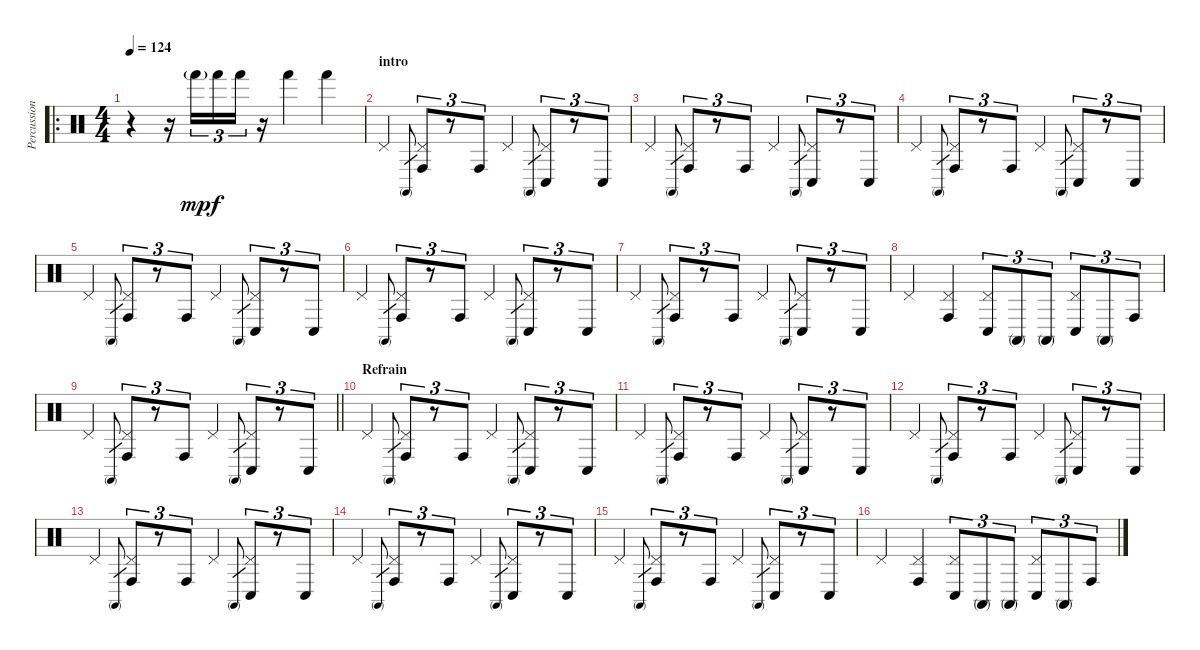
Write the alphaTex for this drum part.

\track ("Percussions" "Percussion") {instrument percussion}
\staff {score}
\articulation defaults
\ro
\ts (4 4)
\tempo 124
\clef neutral
\ks c
r.4{dy mp} r.16 "Hand (hit)"{g}.16{tu (3 2)} "Hand (hit)".16{tu (3 2) dy f} "Hand (hit)".16{tu (3 2)} r.16 "Hand (hit)".4 "Hand (hit)".4 |
\section ("" "intro")
"Pedal Hi-Hat (hit)".4 "Conga high (mute)".8{gr} ("Pedal Hi-Hat (hit)" "Conga high (hit)").8{tu (3 2)} r.8{tu (3 2)} "Conga high (hit)".8{tu (3 2)} "Pedal Hi-Hat (hit)".4 "Conga high (mute)".8{gr} ("Pedal Hi-Hat (hit)" "Conga low (hit)").8{tu (3 2)} r.8{tu (3 2)} "Conga low (hit)".8{tu (3 2)} |
"Pedal Hi-Hat (hit)".4 "Conga high (mute)".8{gr} ("Pedal Hi-Hat (hit)" "Conga high (hit)").8{tu (3 2)} r.8{tu (3 2)} "Conga high (hit)".8{tu (3 2)} "Pedal Hi-Hat (hit)".4 "Conga high (mute)".8{gr} ("Pedal Hi-Hat (hit)" "Conga low (hit)").8{tu (3 2)} r.8{tu (3 2)} "Conga low (hit)".8{tu (3 2)} |
"Pedal Hi-Hat (hit)".4 "Conga high (mute)".8{gr} ("Pedal Hi-Hat (hit)" "Conga high (hit)").8{tu (3 2)} r.8{tu (3 2)} "Conga high (hit)".8{tu (3 2)} "Pedal Hi-Hat (hit)".4 "Conga high (mute)".8{gr} ("Pedal Hi-Hat (hit)" "Conga low (hit)").8{tu (3 2)} r.8{tu (3 2)} "Conga low (hit)".8{tu (3 2)} |
"Pedal Hi-Hat (hit)".4 "Conga high (mute)".8{gr} ("Pedal Hi-Hat (hit)" "Conga high (hit)").8{tu (3 2)} r.8{tu (3 2)} "Conga high (hit)".8{tu (3 2)} "Pedal Hi-Hat (hit)".4 "Conga high (mute)".8{gr} ("Pedal Hi-Hat (hit)" "Conga low (hit)").8{tu (3 2)} r.8{tu (3 2)} "Conga low (hit)".8{tu (3 2)} |
"Pedal Hi-Hat (hit)".4 "Conga high (mute)".8{gr} ("Pedal Hi-Hat (hit)" "Conga high (hit)").8{tu (3 2)} r.8{tu (3 2)} "Conga high (hit)".8{tu (3 2)} "Pedal Hi-Hat (hit)".4 "Conga high (mute)".8{gr} ("Pedal Hi-Hat (hit)" "Conga low (hit)").8{tu (3 2)} r.8{tu (3 2)} "Conga low (hit)".8{tu (3 2)} |
"Pedal Hi-Hat (hit)".4 "Conga high (mute)".8{gr} ("Pedal Hi-Hat (hit)" "Conga high (hit)").8{tu (3 2)} r.8{tu (3 2)} "Conga high (hit)".8{tu (3 2)} "Pedal Hi-Hat (hit)".4 "Conga high (mute)".8{gr} ("Pedal Hi-Hat (hit)" "Conga low (hit)").8{tu (3 2)} r.8{tu (3 2)} "Conga low (hit)".8{tu (3 2)} |
"Pedal Hi-Hat (hit)".4 ("Pedal Hi-Hat (hit)" "Conga high (hit)").4 ("Pedal Hi-Hat (hit)" "Conga low (hit)").8{tu (3 2)} "Conga high (mute)".8{tu (3 2)} "Conga high (mute)".8{tu (3 2)} ("Pedal Hi-Hat (hit)" "Conga low (hit)").8{tu (3 2)} "Conga high (mute)".8{tu (3 2)} "Conga high (hit)".8{tu (3 2)} |
\barLineRight lightlight "Pedal Hi-Hat (hit)".4 "Conga high (mute)".8{gr}
("Pedal Hi-Hat (hit)" "Conga high (hit)").8{tu (3 2)} r.8{tu (3 2)} "Conga high (hit)".8{tu (3 2)} "Pedal Hi-Hat (hit)".4 "Conga high (mute)".8{gr} ("Pedal Hi-Hat (hit)" "Conga low (hit)").8{tu (3 2)} r.8{tu (3 2)} "Conga low (hit)".8{tu (3 2)} |
\section ("" "Refrain")
"Pedal Hi-Hat (hit)".4 "Conga high (mute)".8{gr} ("Pedal Hi-Hat (hit)" "Conga high (hit)").8{tu (3 2)} r.8{tu (3 2)} "Conga high (hit)".8{tu (3 2)} "Pedal Hi-Hat (hit)".4 "Conga high (mute)".8{gr} ("Pedal Hi-Hat (hit)" "Conga low (hit)").8{tu (3 2)} r.8{tu (3 2)} "Conga low (hit)".8{tu (3 2)} |
"Pedal Hi-Hat (hit)".4 "Conga high (mute)".8{gr} ("Pedal Hi-Hat (hit)" "Conga high (hit)").8{tu (3 2)} r.8{tu (3 2)} "Conga high (hit)".8{tu (3 2)} "Pedal Hi-Hat (hit)".4 "Conga high (mute)".8{gr} ("Pedal Hi-Hat (hit)" "Conga low (hit)").8{tu (3 2)} r.8{tu (3 2)} "Conga low (hit)".8{tu (3 2)} |
"Pedal Hi-Hat (hit)".4 "Conga high (mute)".8{gr} ("Pedal Hi-Hat (hit)" "Conga high (hit)").8{tu (3 2)} r.8{tu (3 2)} "Conga high (hit)".8{tu (3 2)} "Pedal Hi-Hat (hit)".4 "Conga high (mute)".8{gr} ("Pedal Hi-Hat (hit)" "Conga low (hit)").8{tu (3 2)} r.8{tu (3 2)} "Conga low (hit)".8{tu (3 2)} |
"Pedal Hi-Hat (hit)".4 "Conga high (mute)".8{gr} ("Pedal Hi-Hat (hit)" "Conga high (hit)").8{tu (3 2)} r.8{tu (3 2)} "Conga high (hit)".8{tu (3 2)} "Pedal Hi-Hat (hit)".4 "Conga high (mute)".8{gr} ("Pedal Hi-Hat (hit)" "Conga low (hit)").8{tu (3 2)} r.8{tu (3 2)} "Conga low (hit)".8{tu (3 2)} |
"Pedal Hi-Hat (hit)".4 "Conga high (mute)".8{gr} ("Pedal Hi-Hat (hit)" "Conga high (hit)").8{tu (3 2)} r.8{tu (3 2)} "Conga high (hit)".8{tu (3 2)} "Pedal Hi-Hat (hit)".4 "Conga high (mute)".8{gr} ("Pedal Hi-Hat (hit)" "Conga low (hit)").8{tu (3 2)} r.8{tu (3 2)} "Conga low (hit)".8{tu (3 2)} |
"Pedal Hi-Hat (hit)".4 "Conga high (mute)".8{gr} ("Pedal Hi-Hat (hit)" "Conga high (hit)").8{tu (3 2)} r.8{tu (3 2)} "Conga high (hit)".8{tu (3 2)} "Pedal Hi-Hat (hit)".4 "Conga high (mute)".8{gr} ("Pedal Hi-Hat (hit)" "Conga low (hit)").8{tu (3 2)} r.8{tu (3 2)} "Conga low (hit)".8{tu (3 2)} |
"Pedal Hi-Hat (hit)".4 ("Pedal Hi-Hat (hit)" "Conga high (hit)").4 ("Pedal Hi-Hat (hit)" "Conga low (hit)").8{tu (3 2)} "Conga high (mute)".8{tu (3 2)} "Conga high (mute)".8{tu (3 2)} ("Pedal Hi-Hat (hit)" "Conga low (hit)").8{tu (3 2)} "Conga high (mute)".8{tu (3 2)} "Conga high (hit)".8{tu (3 2)}
